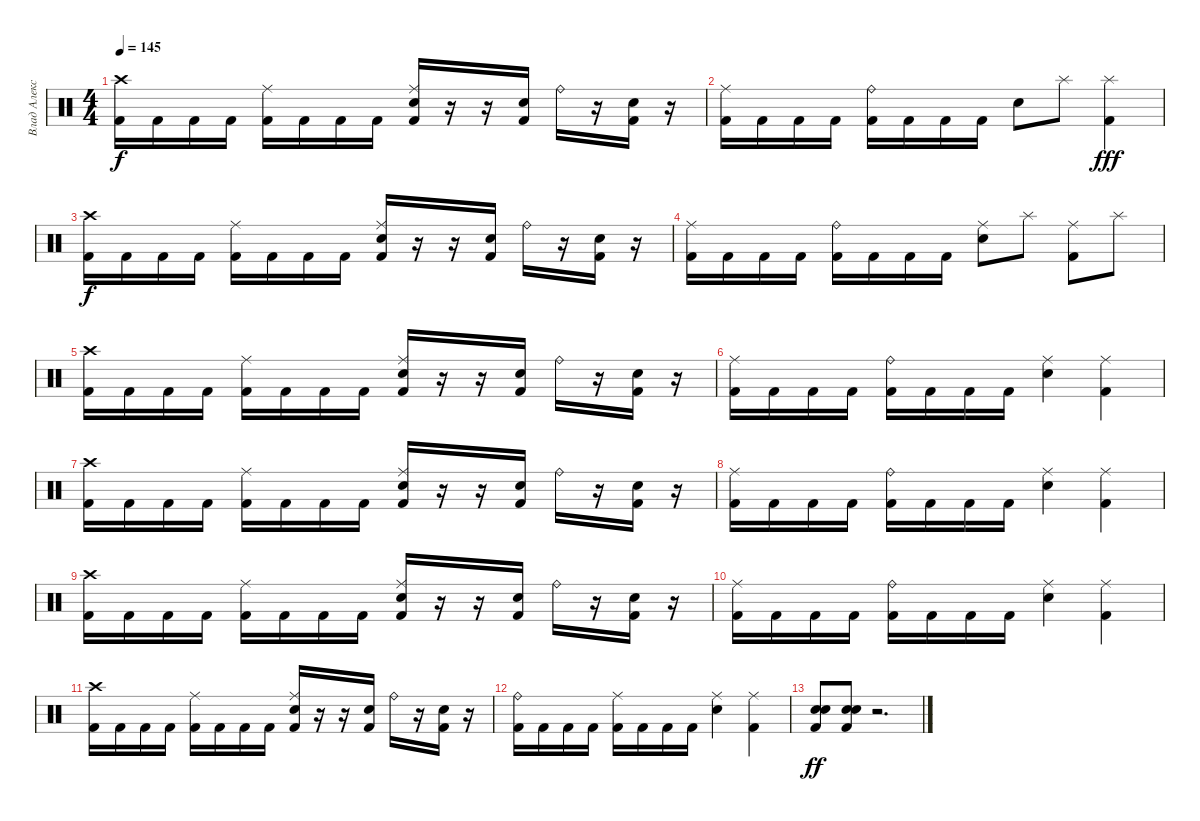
\track ("Влад Алексеенко" "Влад Алекс") {instrument percussion}
\staff {score}
\articulation defaults
\ts (4 4)
\tempo 145
\clef neutral
\ks c
("Crash high (hit)" "Kick (hit) 2").16{dy f} "Kick (hit) 2".16 "Kick (hit) 2".16 "Kick (hit) 2".16 ("Ride (middle)" "Kick (hit) 2").16 "Kick (hit) 2".16 "Kick (hit) 2".16 "Kick (hit) 2".16 ("Ride (middle)" "Electric Snare (hit)" "Kick (hit) 2").16 r.16 r.16 ("Electric Snare (hit)" "Kick (hit) 2").16 "Ride (bell)".16 r.16 ("Electric Snare (hit)" "Kick (hit) 2").16 r.16 |
("Ride (middle)" "Kick (hit) 2").16 "Kick (hit) 2".16 "Kick (hit) 2".16 "Kick (hit) 2".16 ("Ride (bell)" "Kick (hit) 2").16 "Kick (hit) 2".16 "Kick (hit) 2".16 "Kick (hit) 2".16 "Electric Snare (hit)".8 "Splash (hit)".8 ("Splash (hit)" "Kick (hit) 2").4{dy fff} |
("Crash high (hit)" "Kick (hit) 2").16{dy f} "Kick (hit) 2".16 "Kick (hit) 2".16 "Kick (hit) 2".16 ("Ride (middle)" "Kick (hit) 2").16 "Kick (hit) 2".16 "Kick (hit) 2".16 "Kick (hit) 2".16 ("Ride (middle)" "Electric Snare (hit)" "Kick (hit) 2").16 r.16 r.16 ("Electric Snare (hit)" "Kick (hit) 2").16 "Ride (bell)".16 r.16 ("Electric Snare (hit)" "Kick (hit) 2").16 r.16 |
("Ride (middle)" "Kick (hit) 2").16 "Kick (hit) 2".16 "Kick (hit) 2".16 "Kick (hit) 2".16 ("Ride (bell)" "Kick (hit) 2").16 "Kick (hit) 2".16 "Kick (hit) 2".16 "Kick (hit) 2".16 ("Ride (middle)" "Electric Snare (hit)").8 "Splash (hit)".8 ("Ride (middle)" "Kick (hit) 2").8 "Splash (hit)".8 |
("Crash high (hit)" "Kick (hit) 2").16 "Kick (hit) 2".16 "Kick (hit) 2".16 "Kick (hit) 2".16 ("Ride (middle)" "Kick (hit) 2").16 "Kick (hit) 2".16 "Kick (hit) 2".16 "Kick (hit) 2".16 ("Ride (middle)" "Electric Snare (hit)" "Kick (hit) 2").16 r.16 r.16 ("Electric Snare (hit)" "Kick (hit) 2").16 "Ride (bell)".16 r.16 ("Electric Snare (hit)" "Kick (hit) 2").16 r.16 |
("Ride (middle)" "Kick (hit) 2").16 "Kick (hit) 2".16 "Kick (hit) 2".16 "Kick (hit) 2".16 ("Ride (bell)" "Kick (hit) 2").16 "Kick (hit) 2".16 "Kick (hit) 2".16 "Kick (hit) 2".16 ("Ride (middle)" "Electric Snare (hit)").4 ("Ride (middle)" "Kick (hit) 2").4 |
("Crash high (hit)" "Kick (hit) 2").16 "Kick (hit) 2".16 "Kick (hit) 2".16 "Kick (hit) 2".16 ("Ride (middle)" "Kick (hit) 2").16 "Kick (hit) 2".16 "Kick (hit) 2".16 "Kick (hit) 2".16 ("Ride (middle)" "Electric Snare (hit)" "Kick (hit) 2").16 r.16 r.16 ("Electric Snare (hit)" "Kick (hit) 2").16 "Ride (bell)".16 r.16 ("Electric Snare (hit)" "Kick (hit) 2").16 r.16 |
("Ride (middle)" "Kick (hit) 2").16 "Kick (hit) 2".16 "Kick (hit) 2".16 "Kick (hit) 2".16 ("Ride (bell)" "Kick (hit) 2").16 "Kick (hit) 2".16 "Kick (hit) 2".16 "Kick (hit) 2".16 ("Ride (middle)" "Electric Snare (hit)").4 ("Ride (middle)" "Kick (hit) 2").4 |
("Crash high (hit)" "Kick (hit) 2").16 "Kick (hit) 2".16 "Kick (hit) 2".16 "Kick (hit) 2".16 ("Ride (middle)" "Kick (hit) 2").16 "Kick (hit) 2".16 "Kick (hit) 2".16 "Kick (hit) 2".16 ("Ride (middle)" "Electric Snare (hit)" "Kick (hit) 2").16 r.16 r.16 ("Electric Snare (hit)" "Kick (hit) 2").16 "Ride (bell)".16 r.16 ("Electric Snare (hit)" "Kick (hit) 2").16 r.16 |
("Ride (middle)" "Kick (hit) 2").16 "Kick (hit) 2".16 "Kick (hit) 2".16 "Kick (hit) 2".16 ("Ride (bell)" "Kick (hit) 2").16 "Kick (hit) 2".16 "Kick (hit) 2".16 "Kick (hit) 2".16 ("Ride (middle)" "Electric Snare (hit)").4 ("Ride (middle)" "Kick (hit) 2").4 |
("Crash high (hit)" "Kick (hit) 2").16 "Kick (hit) 2".16 "Kick (hit) 2".16 "Kick (hit) 2".16 ("Ride (middle)" "Kick (hit) 2").16 "Kick (hit) 2".16 "Kick (hit) 2".16 "Kick (hit) 2".16 ("Ride (middle)" "Electric Snare (hit)" "Kick (hit) 2").16 r.16 r.16 ("Electric Snare (hit)" "Kick (hit) 2").16 "Ride (bell)".16 r.16 ("Electric Snare (hit)" "Kick (hit) 2").16 r.16 |
("Ride (bell)" "Kick (hit) 2").16 "Kick (hit) 2".16 "Kick (hit) 2".16 "Kick (hit) 2".16 ("Ride (middle)" "Kick (hit) 2").16 "Kick (hit) 2".16 "Kick (hit) 2".16 "Kick (hit) 2".16 ("Ride (middle)" "Electric Snare (hit)").4 ("Ride (middle)" "Kick (hit) 2").4 |
("Electric Snare (hit)" "Electric Snare (hit)" "Kick (hit) 2").8{dy ff} ("Electric Snare (hit)" "Electric Snare (hit)" "Kick (hit) 2").8 r.2{d}
